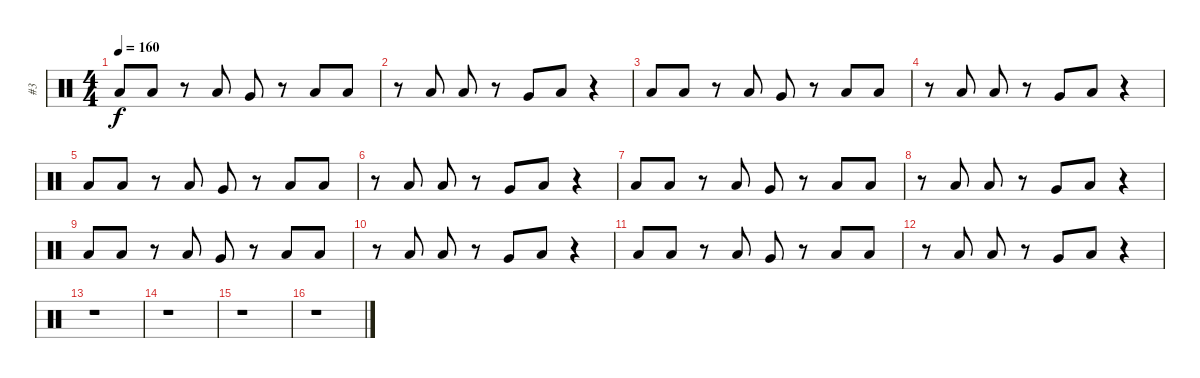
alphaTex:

\track ("#3" "#3") {instrument percussion}
\staff {score}
\articulation defaults
\ts (4 4)
\tempo 160
\clef neutral
\ks c "Low Tom (hit)".8{dy f} "Low Tom (hit)".8
r.8 "Low Tom (hit)".8 "Very Low Tom (hit)".8 r.8 "Low Tom (hit)".8 "Low Tom (hit)".8 |
r.8 "Low Tom (hit)".8 "Low Tom (hit)".8 r.8 "Very Low Tom (hit)".8 "Low Tom (hit)".8 r.4 |
"Low Tom (hit)".8 "Low Tom (hit)".8 r.8 "Low Tom (hit)".8 "Very Low Tom (hit)".8 r.8 "Low Tom (hit)".8 "Low Tom (hit)".8 |
r.8 "Low Tom (hit)".8 "Low Tom (hit)".8 r.8 "Very Low Tom (hit)".8 "Low Tom (hit)".8 r.4 |
"Low Tom (hit)".8 "Low Tom (hit)".8 r.8 "Low Tom (hit)".8 "Very Low Tom (hit)".8 r.8 "Low Tom (hit)".8 "Low Tom (hit)".8 |
r.8 "Low Tom (hit)".8 "Low Tom (hit)".8 r.8 "Very Low Tom (hit)".8 "Low Tom (hit)".8 r.4 |
"Low Tom (hit)".8 "Low Tom (hit)".8 r.8 "Low Tom (hit)".8 "Very Low Tom (hit)".8 r.8 "Low Tom (hit)".8 "Low Tom (hit)".8 |
r.8 "Low Tom (hit)".8 "Low Tom (hit)".8 r.8 "Very Low Tom (hit)".8 "Low Tom (hit)".8 r.4 |
"Low Tom (hit)".8 "Low Tom (hit)".8 r.8 "Low Tom (hit)".8 "Very Low Tom (hit)".8 r.8 "Low Tom (hit)".8 "Low Tom (hit)".8 |
r.8 "Low Tom (hit)".8 "Low Tom (hit)".8 r.8 "Very Low Tom (hit)".8 "Low Tom (hit)".8 r.4 |
"Low Tom (hit)".8 "Low Tom (hit)".8 r.8 "Low Tom (hit)".8 "Very Low Tom (hit)".8 r.8 "Low Tom (hit)".8 "Low Tom (hit)".8 |
r.8 "Low Tom (hit)".8 "Low Tom (hit)".8 r.8 "Very Low Tom (hit)".8 "Low Tom (hit)".8 r.4 |
r.1 |
r.1 |
r.1 |
r.1
